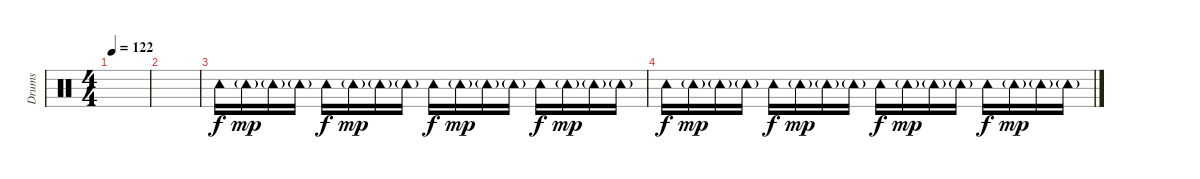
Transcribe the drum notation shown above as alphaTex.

\track ("Drums" "Drums") {instrument percussion}
\staff {score}
\articulation defaults
\ts (4 4)
\tempo 122
\clef neutral
\ks c
|
|
"Tambourine (hit)".16{dy f} "Tambourine (hit)"{g}.16{dy mp} "Tambourine (hit)"{g}.16 "Tambourine (hit)"{g}.16 "Tambourine (hit)".16{dy f} "Tambourine (hit)"{g}.16{dy mp} "Tambourine (hit)"{g}.16 "Tambourine (hit)"{g}.16 "Tambourine (hit)".16{dy f} "Tambourine (hit)"{g}.16{dy mp} "Tambourine (hit)"{g}.16 "Tambourine (hit)"{g}.16 "Tambourine (hit)".16{dy f} "Tambourine (hit)"{g}.16{dy mp} "Tambourine (hit)"{g}.16 "Tambourine (hit)"{g}.16 |
"Tambourine (hit)".16{dy f} "Tambourine (hit)"{g}.16{dy mp} "Tambourine (hit)"{g}.16 "Tambourine (hit)"{g}.16 "Tambourine (hit)".16{dy f} "Tambourine (hit)"{g}.16{dy mp} "Tambourine (hit)"{g}.16 "Tambourine (hit)"{g}.16 "Tambourine (hit)".16{dy f} "Tambourine (hit)"{g}.16{dy mp} "Tambourine (hit)"{g}.16 "Tambourine (hit)"{g}.16 "Tambourine (hit)".16{dy f} "Tambourine (hit)"{g}.16{dy mp} "Tambourine (hit)"{g}.16 "Tambourine (hit)"{g}.16
